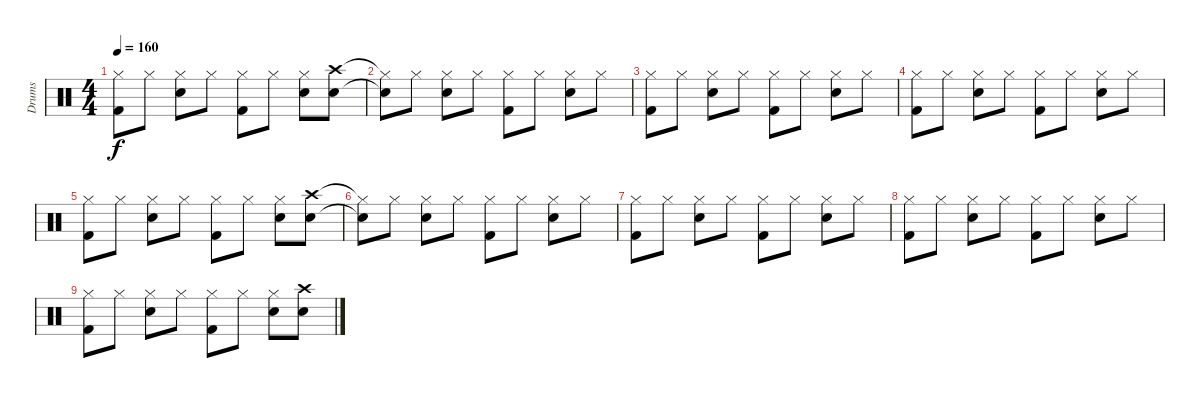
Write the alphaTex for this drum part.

\track ("Drums" "Drums") {instrument percussion}
\staff {score}
\articulation defaults
\ts (4 4)
\tempo 160
\clef neutral
\ks c
("Hi-Hat (closed)" "Kick (hit) 2").8{dy f} "Hi-Hat (closed)".8 ("Hi-Hat (closed)" "Electric Snare (hit)").8 "Hi-Hat (closed)".8 ("Hi-Hat (closed)" "Kick (hit) 2").8 "Hi-Hat (closed)".8 ("Hi-Hat (closed)" "Electric Snare (hit)").8 ("Crash high (hit)" "Electric Snare (hit)").8 |
("Hi-Hat (closed)"{t} "Snare (hit)"{t}).8 "Hi-Hat (closed)".8 ("Hi-Hat (closed)" "Electric Snare (hit)").8 "Hi-Hat (closed)".8 ("Hi-Hat (closed)" "Kick (hit) 2").8 "Hi-Hat (closed)".8 ("Hi-Hat (closed)" "Electric Snare (hit)").8 "Hi-Hat (closed)".8 |
("Hi-Hat (closed)" "Kick (hit) 2").8 "Hi-Hat (closed)".8 ("Hi-Hat (closed)" "Electric Snare (hit)").8 "Hi-Hat (closed)".8 ("Hi-Hat (closed)" "Kick (hit) 2").8 "Hi-Hat (closed)".8 ("Hi-Hat (closed)" "Electric Snare (hit)").8 "Hi-Hat (closed)".8 |
("Hi-Hat (closed)" "Kick (hit) 2").8 "Hi-Hat (closed)".8 ("Hi-Hat (closed)" "Electric Snare (hit)").8 "Hi-Hat (closed)".8 ("Hi-Hat (closed)" "Kick (hit) 2").8 "Hi-Hat (closed)".8 ("Hi-Hat (closed)" "Electric Snare (hit)").8 "Hi-Hat (closed)".8 |
("Hi-Hat (closed)" "Kick (hit) 2").8 "Hi-Hat (closed)".8 ("Hi-Hat (closed)" "Electric Snare (hit)").8 "Hi-Hat (closed)".8 ("Hi-Hat (closed)" "Kick (hit) 2").8 "Hi-Hat (closed)".8 ("Hi-Hat (closed)" "Electric Snare (hit)").8 ("Crash high (hit)" "Electric Snare (hit)").8 |
("Hi-Hat (closed)"{t} "Snare (hit)"{t}).8 "Hi-Hat (closed)".8 ("Hi-Hat (closed)" "Electric Snare (hit)").8 "Hi-Hat (closed)".8 ("Hi-Hat (closed)" "Kick (hit) 2").8 "Hi-Hat (closed)".8 ("Hi-Hat (closed)" "Electric Snare (hit)").8 "Hi-Hat (closed)".8 |
("Hi-Hat (closed)" "Kick (hit) 2").8 "Hi-Hat (closed)".8 ("Hi-Hat (closed)" "Electric Snare (hit)").8 "Hi-Hat (closed)".8 ("Hi-Hat (closed)" "Kick (hit) 2").8 "Hi-Hat (closed)".8 ("Hi-Hat (closed)" "Electric Snare (hit)").8 "Hi-Hat (closed)".8 |
("Hi-Hat (closed)" "Kick (hit) 2").8 "Hi-Hat (closed)".8 ("Hi-Hat (closed)" "Electric Snare (hit)").8 "Hi-Hat (closed)".8 ("Hi-Hat (closed)" "Kick (hit) 2").8 "Hi-Hat (closed)".8 ("Hi-Hat (closed)" "Electric Snare (hit)").8 "Hi-Hat (closed)".8 |
("Hi-Hat (closed)" "Kick (hit) 2").8 "Hi-Hat (closed)".8 ("Hi-Hat (closed)" "Electric Snare (hit)").8 "Hi-Hat (closed)".8 ("Hi-Hat (closed)" "Kick (hit) 2").8 "Hi-Hat (closed)".8 ("Hi-Hat (closed)" "Electric Snare (hit)").8 ("Crash high (hit)" "Electric Snare (hit)").8
